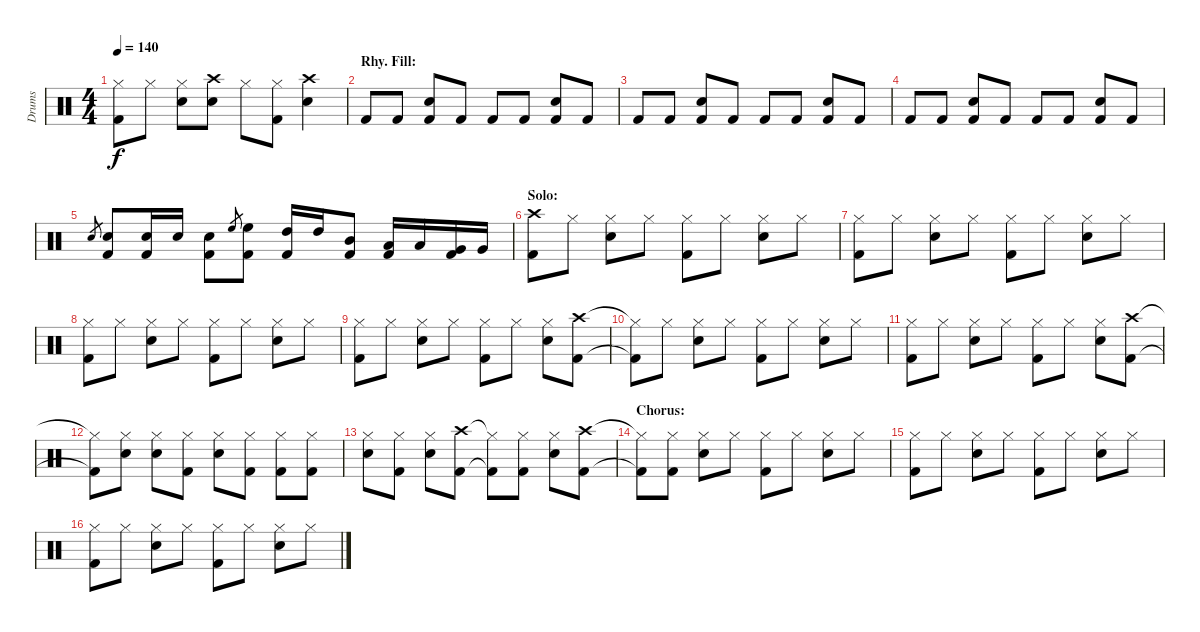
\track ("Drums" "Drums") {instrument percussion}
\staff {score}
\articulation defaults
\ts (4 4)
\tempo 140
\clef neutral
\ks c
("Hi-Hat (closed)" "Kick (hit) 2").8{dy f} "Hi-Hat (closed)".8 ("Hi-Hat (closed)" "Electric Snare (hit)").8 ("Crash high (hit)" "Electric Snare (hit)").8 "Hi-Hat (closed)".8 ("Hi-Hat (closed)" "Kick (hit) 2").8 ("Crash high (hit)" "Electric Snare (hit)").4 |
\section ("" "Rhy. Fill:")
"Kick (hit) 2".8 "Kick (hit) 2".8 ("Electric Snare (hit)" "Kick (hit) 2").8 "Kick (hit) 2".8 "Kick (hit) 2".8 "Kick (hit) 2".8 ("Electric Snare (hit)" "Kick (hit) 2").8 "Kick (hit) 2".8 |
"Kick (hit) 2".8 "Kick (hit) 2".8 ("Electric Snare (hit)" "Kick (hit) 2").8 "Kick (hit) 2".8 "Kick (hit) 2".8 "Kick (hit) 2".8 ("Electric Snare (hit)" "Kick (hit) 2").8 "Kick (hit) 2".8 |
"Kick (hit) 2".8 "Kick (hit) 2".8 ("Electric Snare (hit)" "Kick (hit) 2").8 "Kick (hit) 2".8 "Kick (hit) 2".8 "Kick (hit) 2".8 ("Electric Snare (hit)" "Kick (hit) 2").8 "Kick (hit) 2".8 |
"Electric Snare (hit)".8{gr} ("Electric Snare (hit)" "Kick (hit) 2").8 ("Electric Snare (hit)" "Kick (hit) 2").16 "Electric Snare (hit)".16 ("Electric Snare (hit)" "Kick (hit) 2").8 "High Floor Tom (hit)".8{gr} ("High Floor Tom (hit)" "Kick (hit) 2").8 ("High Tom (hit)" "Kick (hit) 2").16 "High Tom (hit)".16 ("Mid Tom (hit)" "Kick (hit) 2").8 ("Low Tom (hit)" "Kick (hit) 2").16 "Low Tom (hit)".16 ("Very Low Tom (hit)" "Kick (hit) 2").16 "Very Low Tom (hit)".16 |
\section ("" "Solo:")
("Crash high (hit)" "Kick (hit) 2").8 "Hi-Hat (closed)".8 ("Hi-Hat (closed)" "Electric Snare (hit)").8 "Hi-Hat (closed)".8 ("Hi-Hat (closed)" "Kick (hit) 2").8 "Hi-Hat (closed)".8 ("Hi-Hat (closed)" "Electric Snare (hit)").8 "Hi-Hat (closed)".8 |
("Hi-Hat (closed)" "Kick (hit) 2").8 "Hi-Hat (closed)".8 ("Hi-Hat (closed)" "Electric Snare (hit)").8 "Hi-Hat (closed)".8 ("Hi-Hat (closed)" "Kick (hit) 2").8 "Hi-Hat (closed)".8 ("Hi-Hat (closed)" "Electric Snare (hit)").8 "Hi-Hat (closed)".8 |
("Hi-Hat (closed)" "Kick (hit) 2").8 "Hi-Hat (closed)".8 ("Hi-Hat (closed)" "Electric Snare (hit)").8 "Hi-Hat (closed)".8 ("Hi-Hat (closed)" "Kick (hit) 2").8 "Hi-Hat (closed)".8 ("Hi-Hat (closed)" "Electric Snare (hit)").8 "Hi-Hat (closed)".8 |
("Hi-Hat (closed)" "Kick (hit) 2").8 "Hi-Hat (closed)".8 ("Hi-Hat (closed)" "Electric Snare (hit)").8 "Hi-Hat (closed)".8 ("Hi-Hat (closed)" "Kick (hit) 2").8 "Hi-Hat (closed)".8 ("Hi-Hat (closed)" "Electric Snare (hit)").8 ("Crash high (hit)" "Kick (hit) 2").8 |
("Hi-Hat (closed)"{t} "Kick (hit) 2"{t}).8 "Hi-Hat (closed)".8 ("Hi-Hat (closed)" "Electric Snare (hit)").8 "Hi-Hat (closed)".8 ("Hi-Hat (closed)" "Kick (hit) 2").8 "Hi-Hat (closed)".8 ("Hi-Hat (closed)" "Electric Snare (hit)").8 "Hi-Hat (closed)".8 |
("Hi-Hat (closed)" "Kick (hit) 2").8 "Hi-Hat (closed)".8 ("Hi-Hat (closed)" "Electric Snare (hit)").8 "Hi-Hat (closed)".8 ("Hi-Hat (closed)" "Kick (hit) 2").8 "Hi-Hat (closed)".8 ("Hi-Hat (closed)" "Electric Snare (hit)").8 ("Crash high (hit)" "Kick (hit) 2").8 |
("Hi-Hat (closed)"{t} "Kick (hit) 2"{t}).8 ("Hi-Hat (closed)" "Electric Snare (hit)").8 ("Hi-Hat (closed)" "Electric Snare (hit)").8 ("Hi-Hat (closed)" "Kick (hit) 2").8 ("Hi-Hat (closed)" "Electric Snare (hit)").8 ("Hi-Hat (closed)" "Kick (hit) 2").8 ("Hi-Hat (closed)" "Kick (hit) 2").8 ("Hi-Hat (closed)" "Kick (hit) 2").8 |
("Hi-Hat (closed)" "Electric Snare (hit)").8 ("Hi-Hat (closed)" "Kick (hit) 2").8 ("Hi-Hat (closed)" "Electric Snare (hit)").8 ("Crash high (hit)" "Kick (hit) 2").8 ("Hi-Hat (closed)"{t} "Kick (hit) 2"{t}).8 ("Hi-Hat (closed)" "Kick (hit) 2").8 ("Hi-Hat (closed)" "Electric Snare (hit)").8 ("Crash high (hit)" "Kick (hit) 2").8 |
\section ("" "Chorus:")
("Hi-Hat (closed)"{t} "Kick (hit) 2"{t}).8 ("Hi-Hat (closed)" "Kick (hit) 2").8 ("Hi-Hat (closed)" "Electric Snare (hit)").8 "Hi-Hat (closed)".8 ("Hi-Hat (closed)" "Kick (hit) 2").8 "Hi-Hat (closed)".8 ("Hi-Hat (closed)" "Electric Snare (hit)").8 "Hi-Hat (closed)".8 |
("Hi-Hat (closed)" "Kick (hit) 2").8 "Hi-Hat (closed)".8 ("Hi-Hat (closed)" "Electric Snare (hit)").8 "Hi-Hat (closed)".8 ("Hi-Hat (closed)" "Kick (hit) 2").8 "Hi-Hat (closed)".8 ("Hi-Hat (closed)" "Electric Snare (hit)").8 "Hi-Hat (closed)".8 |
("Hi-Hat (closed)" "Kick (hit) 2").8 "Hi-Hat (closed)".8 ("Hi-Hat (closed)" "Electric Snare (hit)").8 "Hi-Hat (closed)".8 ("Hi-Hat (closed)" "Kick (hit) 2").8 "Hi-Hat (closed)".8 ("Hi-Hat (closed)" "Electric Snare (hit)").8 "Hi-Hat (closed)".8
